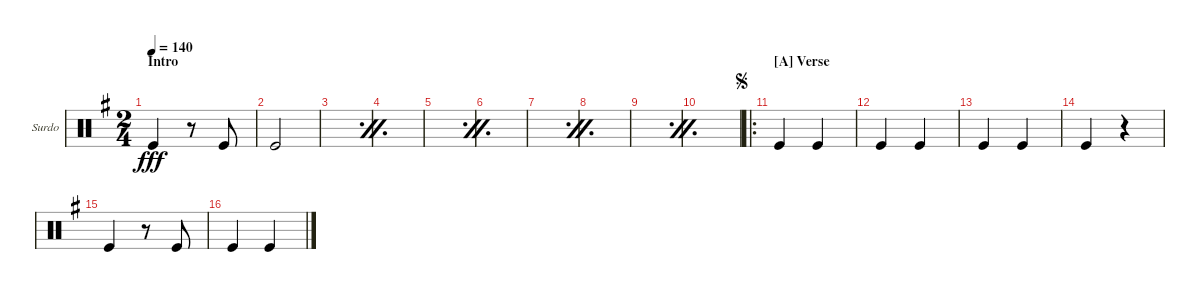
\defaultSystemsLayout 4
\bracketExtendMode groupsimilarinstruments
\firstSystemTrackNameOrientation horizontal
\otherSystemsTrackNameOrientation horizontal
\track ("Surdo" "Surdo") {instrument percussion}
\staff {score}
\articulation defaults
\ts (2 4)
\section ("" "Intro")
\tempo 140
\clef neutral
\ks g "Kick (hit)".4{dy fff}
r.8 "Kick (hit)".8 |
"Kick (hit)".2 |
\simile firstofdouble
|
\simile secondofdouble
|
\simile firstofdouble
|
\simile secondofdouble
|
\simile firstofdouble
|
\simile secondofdouble
|
\simile firstofdouble
|
\simile secondofdouble
|
\ro
\section ("A" "Verse")
\jump segno
\simile none "Kick (hit)".4 "Kick (hit)".4
|
"Kick (hit)".4 "Kick (hit)".4 |
"Kick (hit)".4 "Kick (hit)".4 |
"Kick (hit)".4 r.4 |
"Kick (hit)".4 r.8 "Kick (hit)".8 |
"Kick (hit)".4 "Kick (hit)".4
